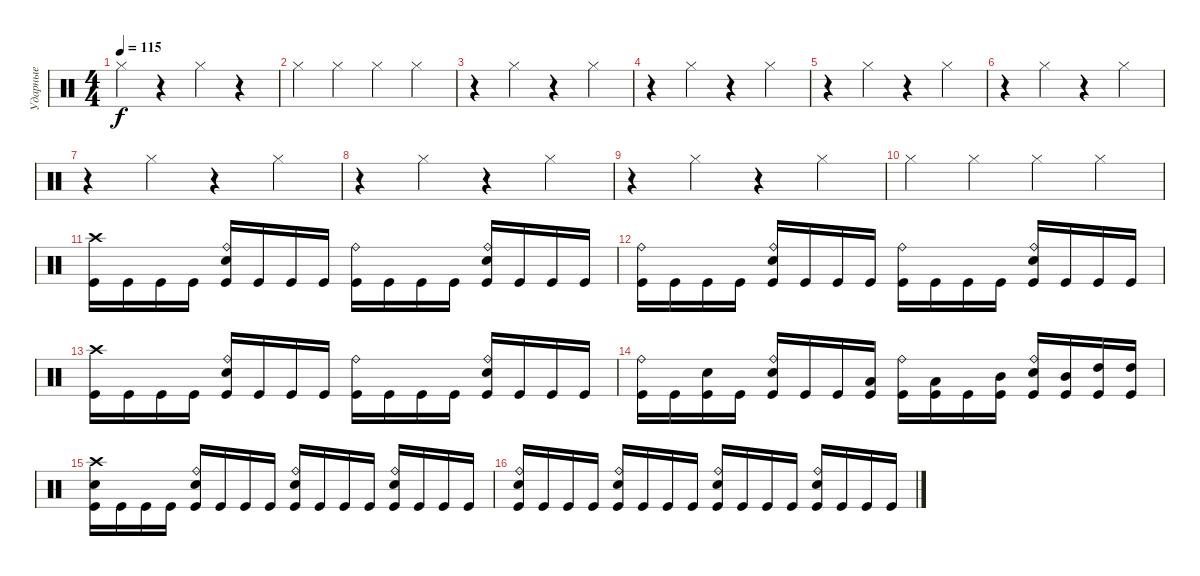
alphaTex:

\track ("Ударные" "Ударные") {instrument percussion}
\staff {score}
\articulation defaults
\ts (4 4)
\tempo 115
\clef neutral
\ks c "Hi-Hat (closed)".4{dy f}
r.4 "Hi-Hat (closed)".4 r.4 |
"Hi-Hat (closed)".4 "Hi-Hat (closed)".4 "Hi-Hat (closed)".4 "Hi-Hat (closed)".4 |
r.4 "Hi-Hat (closed)".4 r.4 "Hi-Hat (closed)".4 |
r.4 "Hi-Hat (closed)".4 r.4 "Hi-Hat (closed)".4 |
r.4 "Hi-Hat (closed)".4 r.4 "Hi-Hat (closed)".4 |
r.4 "Hi-Hat (closed)".4 r.4 "Hi-Hat (closed)".4 |
r.4 "Hi-Hat (closed)".4 r.4 "Hi-Hat (closed)".4 |
r.4 "Hi-Hat (closed)".4 r.4 "Hi-Hat (closed)".4 |
r.4 "Hi-Hat (closed)".4 r.4 "Hi-Hat (closed)".4 |
"Hi-Hat (closed)".4 "Hi-Hat (closed)".4 "Hi-Hat (closed)".4 "Hi-Hat (closed)".4 |
("Crash high (hit)" "Kick (hit)").16 "Kick (hit)".16 "Kick (hit)".16 "Kick (hit)".16 ("Ride (bell)" "Electric Snare (hit)" "Kick (hit)").16 "Kick (hit)".16 "Kick (hit)".16 "Kick (hit)".16 ("Ride (bell)" "Kick (hit)").16 "Kick (hit)".16 "Kick (hit)".16 "Kick (hit)".16 ("Ride (bell)" "Electric Snare (hit)" "Kick (hit)").16 "Kick (hit)".16 "Kick (hit)".16 "Kick (hit)".16 |
("Ride (bell)" "Kick (hit)").16 "Kick (hit)".16 "Kick (hit)".16 "Kick (hit)".16 ("Ride (bell)" "Electric Snare (hit)" "Kick (hit)").16 "Kick (hit)".16 "Kick (hit)".16 "Kick (hit)".16 ("Ride (bell)" "Kick (hit)").16 "Kick (hit)".16 "Kick (hit)".16 "Kick (hit)".16 ("Ride (bell)" "Electric Snare (hit)" "Kick (hit)").16 "Kick (hit)".16 "Kick (hit)".16 "Kick (hit)".16 |
("Crash high (hit)" "Kick (hit)").16 "Kick (hit)".16 "Kick (hit)".16 "Kick (hit)".16 ("Ride (bell)" "Electric Snare (hit)" "Kick (hit)").16 "Kick (hit)".16 "Kick (hit)".16 "Kick (hit)".16 ("Ride (bell)" "Kick (hit)").16 "Kick (hit)".16 "Kick (hit)".16 "Kick (hit)".16 ("Ride (bell)" "Electric Snare (hit)" "Kick (hit)").16 "Kick (hit)".16 "Kick (hit)".16 "Kick (hit)".16 |
("Ride (bell)" "Kick (hit)").16 "Kick (hit)".16 ("Electric Snare (hit)" "Kick (hit)").16 "Kick (hit)".16 ("Ride (bell)" "Electric Snare (hit)" "Kick (hit)").16 "Kick (hit)".16 "Kick (hit)".16 ("Low Tom (hit)" "Kick (hit)").16 ("Ride (bell)" "Kick (hit)").16 ("Low Tom (hit)" "Kick (hit)").16 "Kick (hit)".16 ("Mid Tom (hit)" "Kick (hit)").16 ("Ride (bell)" "Electric Snare (hit)" "Kick (hit)").16 ("Mid Tom (hit)" "Kick (hit)").16 ("High Tom (hit)" "Kick (hit)").16 ("High Tom (hit)" "Kick (hit)").16 |
("Crash high (hit)" "Electric Snare (hit)" "Kick (hit)").16 "Kick (hit)".16 "Kick (hit)".16 "Kick (hit)".16 ("Ride (bell)" "Electric Snare (hit)" "Kick (hit)").16 "Kick (hit)".16 "Kick (hit)".16 "Kick (hit)".16 ("Ride (bell)" "Electric Snare (hit)" "Kick (hit)").16 "Kick (hit)".16 "Kick (hit)".16 "Kick (hit)".16 ("Ride (bell)" "Electric Snare (hit)" "Kick (hit)").16 "Kick (hit)".16 "Kick (hit)".16 "Kick (hit)".16 |
("Ride (bell)" "Electric Snare (hit)" "Kick (hit)").16 "Kick (hit)".16 "Kick (hit)".16 "Kick (hit)".16 ("Ride (bell)" "Electric Snare (hit)" "Kick (hit)").16 "Kick (hit)".16 "Kick (hit)".16 "Kick (hit)".16 ("Ride (bell)" "Electric Snare (hit)" "Kick (hit)").16 "Kick (hit)".16 "Kick (hit)".16 "Kick (hit)".16 ("Ride (bell)" "Electric Snare (hit)" "Kick (hit)").16 "Kick (hit)".16 "Kick (hit)".16 "Kick (hit)".16
